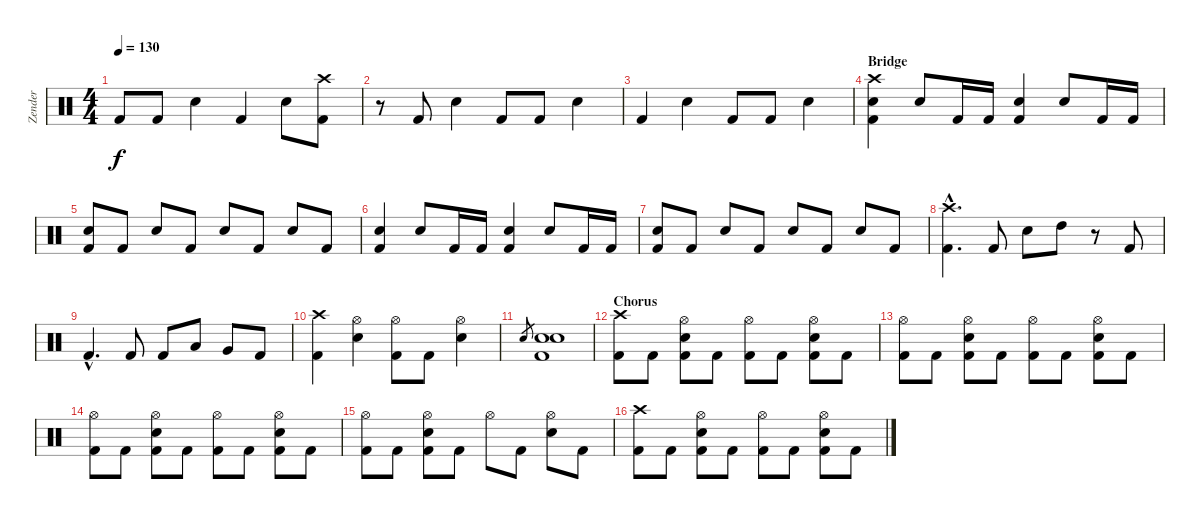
\track ("Zender" "Zender") {instrument percussion}
\staff {score}
\articulation defaults
\ts (4 4)
\tempo 130
\clef neutral
\ks c "Kick (hit) 2".8{dy f} "Kick (hit) 2".8 "Electric Snare (hit)".4 "Kick (hit) 2".4 "Electric Snare (hit)".8
("Crash high (hit)" "Kick (hit) 2").8 |
r.8 "Kick (hit) 2".8 "Electric Snare (hit)".4 "Kick (hit) 2".8 "Kick (hit) 2".8 "Electric Snare (hit)".4 |
"Kick (hit) 2".4 "Electric Snare (hit)".4 "Kick (hit) 2".8 "Kick (hit) 2".8 "Electric Snare (hit)".4 |
\section ("" "Bridge")
("Crash high (hit)" "Electric Snare (hit)" "Kick (hit) 2").4 "Electric Snare (hit)".8 "Kick (hit) 2".16 "Kick (hit) 2".16 ("Electric Snare (hit)" "Kick (hit) 2").4 "Electric Snare (hit)".8 "Kick (hit) 2".16 "Kick (hit) 2".16 |
("Electric Snare (hit)" "Kick (hit) 2").8 "Kick (hit) 2".8 "Electric Snare (hit)".8 "Kick (hit) 2".8 "Electric Snare (hit)".8 "Kick (hit) 2".8 "Electric Snare (hit)".8 "Kick (hit) 2".8 |
("Electric Snare (hit)" "Kick (hit) 2").4 "Electric Snare (hit)".8 "Kick (hit) 2".16 "Kick (hit) 2".16 ("Electric Snare (hit)" "Kick (hit) 2").4 "Electric Snare (hit)".8 "Kick (hit) 2".16 "Kick (hit) 2".16 |
("Electric Snare (hit)" "Kick (hit) 2").8 "Kick (hit) 2".8 "Electric Snare (hit)".8 "Kick (hit) 2".8 "Electric Snare (hit)".8 "Kick (hit) 2".8 "Electric Snare (hit)".8 "Kick (hit) 2".8 |
("Crash high (hit)"{hac} "Kick (hit) 2"{hac}).4{d} "Kick (hit) 2".8 "Electric Snare (hit)".8 "High Tom (hit)".8 r.8 "Kick (hit) 2".8 |
"Kick (hit) 2"{hac}.4{d} "Kick (hit) 2".8 "Kick (hit) 2".8 "Low Tom (hit)".8 "Very Low Tom (hit)".8 "Kick (hit) 2".8 |
("Crash high (hit)" "Kick (hit) 2").4 ("Electric Snare (hit)" "Hi-Hat (open)").4 ("Hi-Hat (open)" "Kick (hit) 2").8 "Kick (hit) 2".8 ("Electric Snare (hit)" "Hi-Hat (open)").4 |
"Electric Snare (hit)".8{gr} ("Electric Snare (hit)" "Electric Snare (hit)" "Kick (hit) 2").1 |
\section ("" "Chorus")
("Crash high (hit)" "Kick (hit) 2").8 "Kick (hit) 2".8 ("Electric Snare (hit)" "Hi-Hat (open)" "Kick (hit) 2").8 "Kick (hit) 2".8 ("Hi-Hat (open)" "Kick (hit) 2").8 "Kick (hit) 2".8 ("Electric Snare (hit)" "Hi-Hat (open)" "Kick (hit) 2").8 "Kick (hit) 2".8 |
("Hi-Hat (open)" "Kick (hit) 2").8 "Kick (hit) 2".8 ("Electric Snare (hit)" "Hi-Hat (open)" "Kick (hit) 2").8 "Kick (hit) 2".8 ("Hi-Hat (open)" "Kick (hit) 2").8 "Kick (hit) 2".8 ("Electric Snare (hit)" "Hi-Hat (open)" "Kick (hit) 2").8 "Kick (hit) 2".8 |
("Hi-Hat (open)" "Kick (hit) 2").8 "Kick (hit) 2".8 ("Electric Snare (hit)" "Hi-Hat (open)" "Kick (hit) 2").8 "Kick (hit) 2".8 ("Hi-Hat (open)" "Kick (hit) 2").8 "Kick (hit) 2".8 ("Electric Snare (hit)" "Hi-Hat (open)" "Kick (hit) 2").8 "Kick (hit) 2".8 |
("Hi-Hat (open)" "Kick (hit) 2").8 "Kick (hit) 2".8 ("Electric Snare (hit)" "Hi-Hat (open)" "Kick (hit) 2").8 "Kick (hit) 2".8 "Hi-Hat (open)".8 "Kick (hit) 2".8 ("Electric Snare (hit)" "Hi-Hat (open)").8 "Kick (hit) 2".8 |
("Crash high (hit)" "Kick (hit) 2").8 "Kick (hit) 2".8 ("Electric Snare (hit)" "Hi-Hat (open)" "Kick (hit) 2").8 "Kick (hit) 2".8 ("Hi-Hat (open)" "Kick (hit) 2").8 "Kick (hit) 2".8 ("Electric Snare (hit)" "Hi-Hat (open)" "Kick (hit) 2").8 "Kick (hit) 2".8
